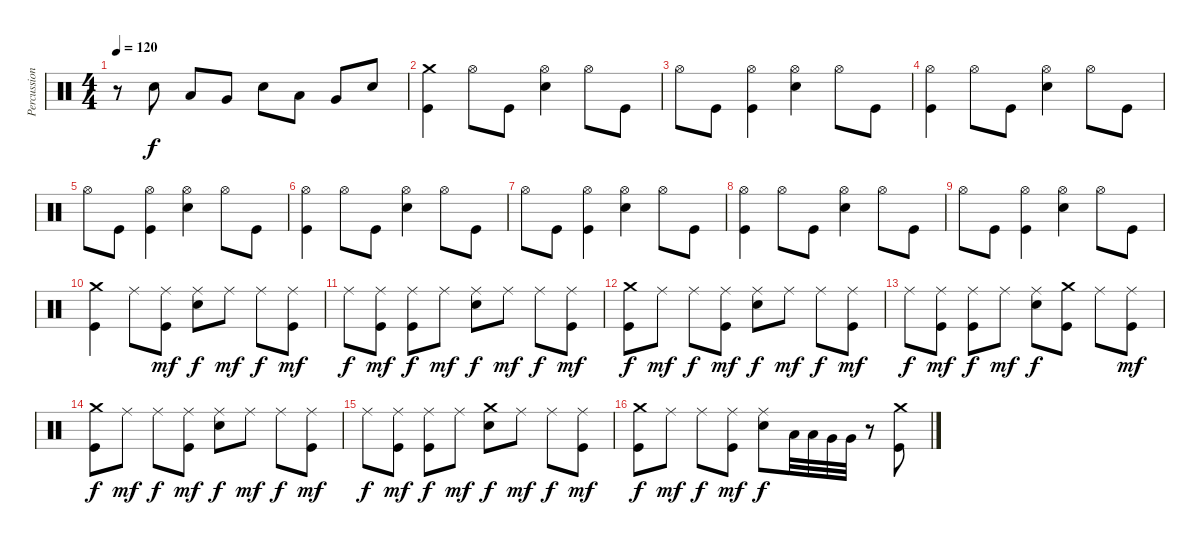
\track ("Percussions" "Percussion") {instrument percussion}
\staff {score}
\articulation defaults
\ts (4 4)
\tempo 120
\clef neutral
\ks c
r.8{dy f} "Electric Snare (hit)".8 "Low Tom (hit)".8 "Very Low Tom (hit)".8 "Electric Snare (hit)".8 "Low Tom (hit)".8 "Very Low Tom (hit)".8 "Electric Snare (hit)".8 |
("Kick (hit)" "Crash medium (hit)").4 "Hi-Hat (open)".8 "Kick (hit)".8 ("Electric Snare (hit)" "Hi-Hat (open)").4 "Hi-Hat (open)".8 "Kick (hit)".8 |
"Hi-Hat (open)".8 "Kick (hit)".8 ("Kick (hit)" "Hi-Hat (open)").4 ("Electric Snare (hit)" "Hi-Hat (open)").4 "Hi-Hat (open)".8 "Kick (hit)".8 |
("Kick (hit)" "Hi-Hat (open)").4 "Hi-Hat (open)".8 "Kick (hit)".8 ("Electric Snare (hit)" "Hi-Hat (open)").4 "Hi-Hat (open)".8 "Kick (hit)".8 |
"Hi-Hat (open)".8 "Kick (hit)".8 ("Kick (hit)" "Hi-Hat (open)").4 ("Electric Snare (hit)" "Hi-Hat (open)").4 "Hi-Hat (open)".8 "Kick (hit)".8 |
("Kick (hit)" "Hi-Hat (open)").4 "Hi-Hat (open)".8 "Kick (hit)".8 ("Electric Snare (hit)" "Hi-Hat (open)").4 "Hi-Hat (open)".8 "Kick (hit)".8 |
"Hi-Hat (open)".8 "Kick (hit)".8 ("Kick (hit)" "Hi-Hat (open)").4 ("Electric Snare (hit)" "Hi-Hat (open)").4 "Hi-Hat (open)".8 "Kick (hit)".8 |
("Kick (hit)" "Hi-Hat (open)").4 "Hi-Hat (open)".8 "Kick (hit)".8 ("Electric Snare (hit)" "Hi-Hat (open)").4 "Hi-Hat (open)".8 "Kick (hit)".8 |
"Hi-Hat (open)".8 "Kick (hit)".8 ("Kick (hit)" "Hi-Hat (open)").4 ("Electric Snare (hit)" "Hi-Hat (open)").4 "Hi-Hat (open)".8 "Kick (hit)".8 |
("Kick (hit)" "Crash medium (hit)").4 "Ride (middle)".8 ("Kick (hit)" "Ride (middle)").8{dy mf} ("Electric Snare (hit)" "Ride (middle)").8{dy f} "Ride (middle)".8{dy mf} "Ride (middle)".8{dy f} ("Kick (hit)" "Ride (middle)").8{dy mf} |
"Ride (middle)".8{dy f} ("Kick (hit)" "Ride (middle)").8{dy mf} ("Kick (hit)" "Ride (middle)").8{dy f} "Ride (middle)".8{dy mf} ("Electric Snare (hit)" "Ride (middle)").8{dy f} "Ride (middle)".8{dy mf} "Ride (middle)".8{dy f} ("Kick (hit)" "Ride (middle)").8{dy mf} |
("Kick (hit)" "Crash medium (hit)").8{dy f} "Ride (middle)".8{dy mf} "Ride (middle)".8{dy f} ("Kick (hit)" "Ride (middle)").8{dy mf} ("Electric Snare (hit)" "Ride (middle)").8{dy f} "Ride (middle)".8{dy mf} "Ride (middle)".8{dy f} ("Kick (hit)" "Ride (middle)").8{dy mf} |
"Ride (middle)".8{dy f} ("Kick (hit)" "Ride (middle)").8{dy mf} ("Kick (hit)" "Ride (middle)").8{dy f} "Ride (middle)".8{dy mf} ("Electric Snare (hit)" "Ride (middle)").8{dy f} ("Kick (hit)" "Crash medium (hit)").8 "Ride (middle)".8 ("Kick (hit)" "Ride (middle)").8{dy mf} |
("Kick (hit)" "Crash medium (hit)").8{dy f} "Ride (middle)".8{dy mf} "Ride (middle)".8{dy f} ("Kick (hit)" "Ride (middle)").8{dy mf} ("Electric Snare (hit)" "Ride (middle)").8{dy f} "Ride (middle)".8{dy mf} "Ride (middle)".8{dy f} ("Kick (hit)" "Ride (middle)").8{dy mf} |
"Ride (middle)".8{dy f} ("Kick (hit)" "Ride (middle)").8{dy mf} ("Kick (hit)" "Ride (middle)").8{dy f} "Ride (middle)".8{dy mf} ("Electric Snare (hit)" "Crash medium (hit)").8{dy f} "Ride (middle)".8{dy mf} "Ride (middle)".8{dy f} ("Kick (hit)" "Ride (middle)").8{dy mf} |
("Kick (hit)" "Crash medium (hit)").8{dy f} "Ride (middle)".8{dy mf} "Ride (middle)".8{dy f} ("Kick (hit)" "Ride (middle)").8{dy mf} ("Electric Snare (hit)" "Ride (middle)").8{dy f} "Low Tom (hit)".32 "Low Tom (hit)".32 "Very Low Tom (hit)".32 "Very Low Tom (hit)".32 r.8 ("Kick (hit)" "Crash medium (hit)").8
